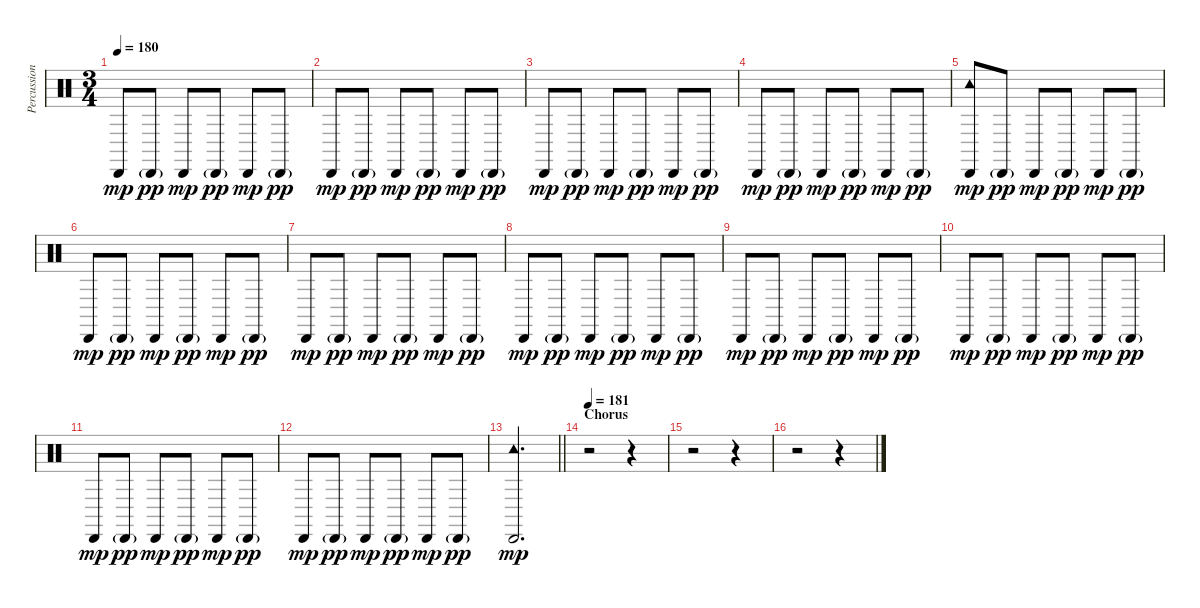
\track ("Percussion" "Percussion") {instrument percussion}
\staff {score}
\articulation defaults
\ts (3 4)
\tempo 180
\clef neutral
\ks c "Cabasa (hit)".8{dy mp} "Cabasa (hit)"{g}.8{dy pp} "Cabasa (hit)".8{dy mp} "Cabasa (hit)"{g}.8{dy pp} "Cabasa (hit)".8{dy mp} "Cabasa (hit)"{g}.8{dy pp}
|
"Cabasa (hit)".8{dy mp} "Cabasa (hit)"{g}.8{dy pp} "Cabasa (hit)".8{dy mp} "Cabasa (hit)"{g}.8{dy pp} "Cabasa (hit)".8{dy mp} "Cabasa (hit)"{g}.8{dy pp} |
"Cabasa (hit)".8{dy mp} "Cabasa (hit)"{g}.8{dy pp} "Cabasa (hit)".8{dy mp} "Cabasa (hit)"{g}.8{dy pp} "Cabasa (hit)".8{dy mp} "Cabasa (hit)"{g}.8{dy pp} |
"Cabasa (hit)".8{dy mp} "Cabasa (hit)"{g}.8{dy pp} "Cabasa (hit)".8{dy mp} "Cabasa (hit)"{g}.8{dy pp} "Cabasa (hit)".8{dy mp} "Cabasa (hit)"{g}.8{dy pp} |
("Tambourine (hit)" "Cabasa (hit)").8{dy mp} "Cabasa (hit)"{g}.8{dy pp} "Cabasa (hit)".8{dy mp} "Cabasa (hit)"{g}.8{dy pp} "Cabasa (hit)".8{dy mp} "Cabasa (hit)"{g}.8{dy pp} |
"Cabasa (hit)".8{dy mp} "Cabasa (hit)"{g}.8{dy pp} "Cabasa (hit)".8{dy mp} "Cabasa (hit)"{g}.8{dy pp} "Cabasa (hit)".8{dy mp} "Cabasa (hit)"{g}.8{dy pp} |
"Cabasa (hit)".8{dy mp} "Cabasa (hit)"{g}.8{dy pp} "Cabasa (hit)".8{dy mp} "Cabasa (hit)"{g}.8{dy pp} "Cabasa (hit)".8{dy mp} "Cabasa (hit)"{g}.8{dy pp} |
"Cabasa (hit)".8{dy mp} "Cabasa (hit)"{g}.8{dy pp} "Cabasa (hit)".8{dy mp} "Cabasa (hit)"{g}.8{dy pp} "Cabasa (hit)".8{dy mp} "Cabasa (hit)"{g}.8{dy pp} |
"Cabasa (hit)".8{dy mp} "Cabasa (hit)"{g}.8{dy pp} "Cabasa (hit)".8{dy mp} "Cabasa (hit)"{g}.8{dy pp} "Cabasa (hit)".8{dy mp} "Cabasa (hit)"{g}.8{dy pp} |
"Cabasa (hit)".8{dy mp} "Cabasa (hit)"{g}.8{dy pp} "Cabasa (hit)".8{dy mp} "Cabasa (hit)"{g}.8{dy pp} "Cabasa (hit)".8{dy mp} "Cabasa (hit)"{g}.8{dy pp} |
"Cabasa (hit)".8{dy mp} "Cabasa (hit)"{g}.8{dy pp} "Cabasa (hit)".8{dy mp} "Cabasa (hit)"{g}.8{dy pp} "Cabasa (hit)".8{dy mp} "Cabasa (hit)"{g}.8{dy pp} |
"Cabasa (hit)".8{dy mp} "Cabasa (hit)"{g}.8{dy pp} "Cabasa (hit)".8{dy mp} "Cabasa (hit)"{g}.8{dy pp} "Cabasa (hit)".8{dy mp} "Cabasa (hit)"{g}.8{dy pp} |
\barLineRight lightlight
("Tambourine (hit)" "Cabasa (hit)").2{d dy mp} |
\section ("" "Chorus")
\tempo 181
r.2 r.4 |
r.2 r.4 |
r.2 r.4
